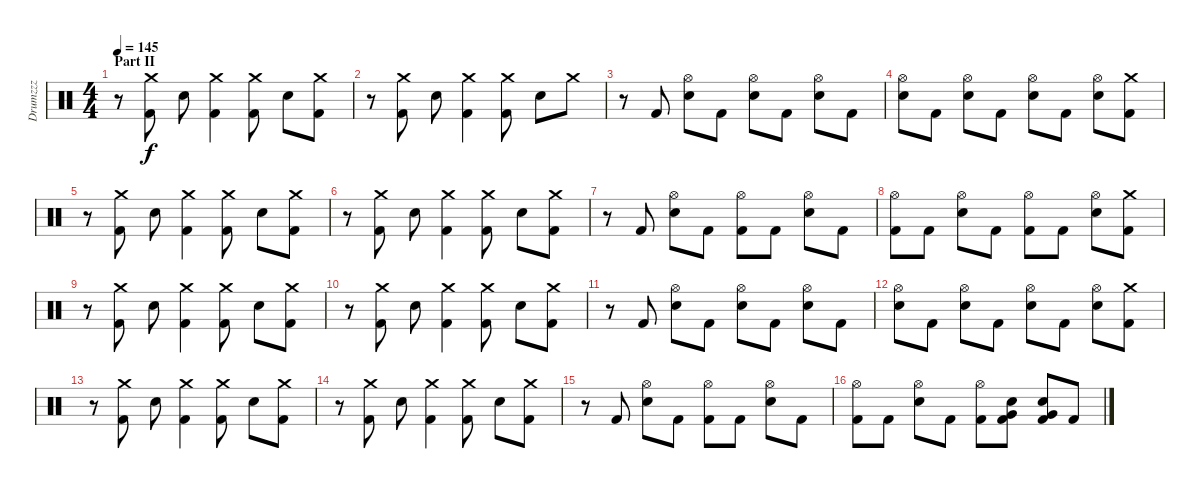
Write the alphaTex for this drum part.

\track ("Drumzzz" "Drumzzz") {instrument percussion}
\staff {score}
\articulation defaults
\ts (4 4)
\section ("" "Part II")
\tempo 145
\clef neutral
\ks c
r.8{dy f} ("Crash medium (hit)" "Kick (hit) 2").8 "Electric Snare (hit)".8 ("Crash medium (hit)" "Kick (hit) 2").4 ("Crash medium (hit)" "Kick (hit) 2").8 "Electric Snare (hit)".8 ("Crash medium (hit)" "Kick (hit) 2").8 |
r.8 ("Crash medium (hit)" "Kick (hit) 2").8 "Electric Snare (hit)".8 ("Crash medium (hit)" "Kick (hit) 2").4 ("Crash medium (hit)" "Kick (hit) 2").8 "Electric Snare (hit)".8 "Crash medium (hit)".8 |
r.8 "Kick (hit) 2".8 ("Hi-Hat (open)" "Electric Snare (hit)").8 "Kick (hit) 2".8 ("Hi-Hat (open)" "Electric Snare (hit)").8 "Kick (hit) 2".8 ("Hi-Hat (open)" "Electric Snare (hit)").8 "Kick (hit) 2".8 |
("Hi-Hat (open)" "Electric Snare (hit)").8 "Kick (hit) 2".8 ("Hi-Hat (open)" "Electric Snare (hit)").8 "Kick (hit) 2".8 ("Hi-Hat (open)" "Electric Snare (hit)").8 "Kick (hit) 2".8 ("Hi-Hat (open)" "Electric Snare (hit)").8 ("Crash medium (hit)" "Kick (hit) 2").8 |
r.8 ("Crash medium (hit)" "Kick (hit) 2").8 "Electric Snare (hit)".8 ("Crash medium (hit)" "Kick (hit) 2").4 ("Crash medium (hit)" "Kick (hit) 2").8 "Electric Snare (hit)".8 ("Crash medium (hit)" "Kick (hit) 2").8 |
r.8 ("Crash medium (hit)" "Kick (hit) 2").8 "Electric Snare (hit)".8 ("Crash medium (hit)" "Kick (hit) 2").4 ("Crash medium (hit)" "Kick (hit) 2").8 "Electric Snare (hit)".8 ("Crash medium (hit)" "Kick (hit) 2").8 |
r.8 "Kick (hit) 2".8 ("Hi-Hat (open)" "Electric Snare (hit)").8 "Kick (hit) 2".8 ("Hi-Hat (open)" "Kick (hit) 2").8 "Kick (hit) 2".8 ("Hi-Hat (open)" "Electric Snare (hit)").8 "Kick (hit) 2".8 |
("Hi-Hat (open)" "Kick (hit) 2").8 "Kick (hit) 2".8 ("Hi-Hat (open)" "Electric Snare (hit)").8 "Kick (hit) 2".8 ("Hi-Hat (open)" "Kick (hit) 2").8 "Kick (hit) 2".8 ("Hi-Hat (open)" "Electric Snare (hit)").8 ("Crash medium (hit)" "Kick (hit) 2").8 |
r.8 ("Crash medium (hit)" "Kick (hit) 2").8 "Electric Snare (hit)".8 ("Crash medium (hit)" "Kick (hit) 2").4 ("Crash medium (hit)" "Kick (hit) 2").8 "Electric Snare (hit)".8 ("Crash medium (hit)" "Kick (hit) 2").8 |
r.8 ("Crash medium (hit)" "Kick (hit) 2").8 "Electric Snare (hit)".8 ("Crash medium (hit)" "Kick (hit) 2").4 ("Crash medium (hit)" "Kick (hit) 2").8 "Electric Snare (hit)".8 ("Crash medium (hit)" "Kick (hit) 2").8 |
r.8 "Kick (hit) 2".8 ("Hi-Hat (open)" "Electric Snare (hit)").8 "Kick (hit) 2".8 ("Hi-Hat (open)" "Electric Snare (hit)").8 "Kick (hit) 2".8 ("Hi-Hat (open)" "Electric Snare (hit)").8 "Kick (hit) 2".8 |
("Hi-Hat (open)" "Electric Snare (hit)").8 "Kick (hit) 2".8 ("Hi-Hat (open)" "Electric Snare (hit)").8 "Kick (hit) 2".8 ("Hi-Hat (open)" "Electric Snare (hit)").8 "Kick (hit) 2".8 ("Hi-Hat (open)" "Electric Snare (hit)").8 ("Crash medium (hit)" "Kick (hit) 2").8 |
r.8 ("Crash medium (hit)" "Kick (hit) 2").8 "Electric Snare (hit)".8 ("Crash medium (hit)" "Kick (hit) 2").4 ("Crash medium (hit)" "Kick (hit) 2").8 "Electric Snare (hit)".8 ("Crash medium (hit)" "Kick (hit) 2").8 |
r.8 ("Crash medium (hit)" "Kick (hit) 2").8 "Electric Snare (hit)".8 ("Crash medium (hit)" "Kick (hit) 2").4 ("Crash medium (hit)" "Kick (hit) 2").8 "Electric Snare (hit)".8 ("Crash medium (hit)" "Kick (hit) 2").8 |
r.8 "Kick (hit) 2".8 ("Hi-Hat (open)" "Electric Snare (hit)").8 "Kick (hit) 2".8 ("Hi-Hat (open)" "Kick (hit) 2").8 "Kick (hit) 2".8 ("Hi-Hat (open)" "Electric Snare (hit)").8 "Kick (hit) 2".8 |
("Hi-Hat (open)" "Kick (hit) 2").8 "Kick (hit) 2".8 ("Hi-Hat (open)" "Electric Snare (hit)").8 "Kick (hit) 2".8 ("Hi-Hat (open)" "Kick (hit) 2").8 ("Electric Snare (hit)" "Very Low Tom (hit)" "Kick (hit) 2").8 ("Electric Snare (hit)" "Very Low Tom (hit)" "Kick (hit) 2").8 "Kick (hit) 2".8
